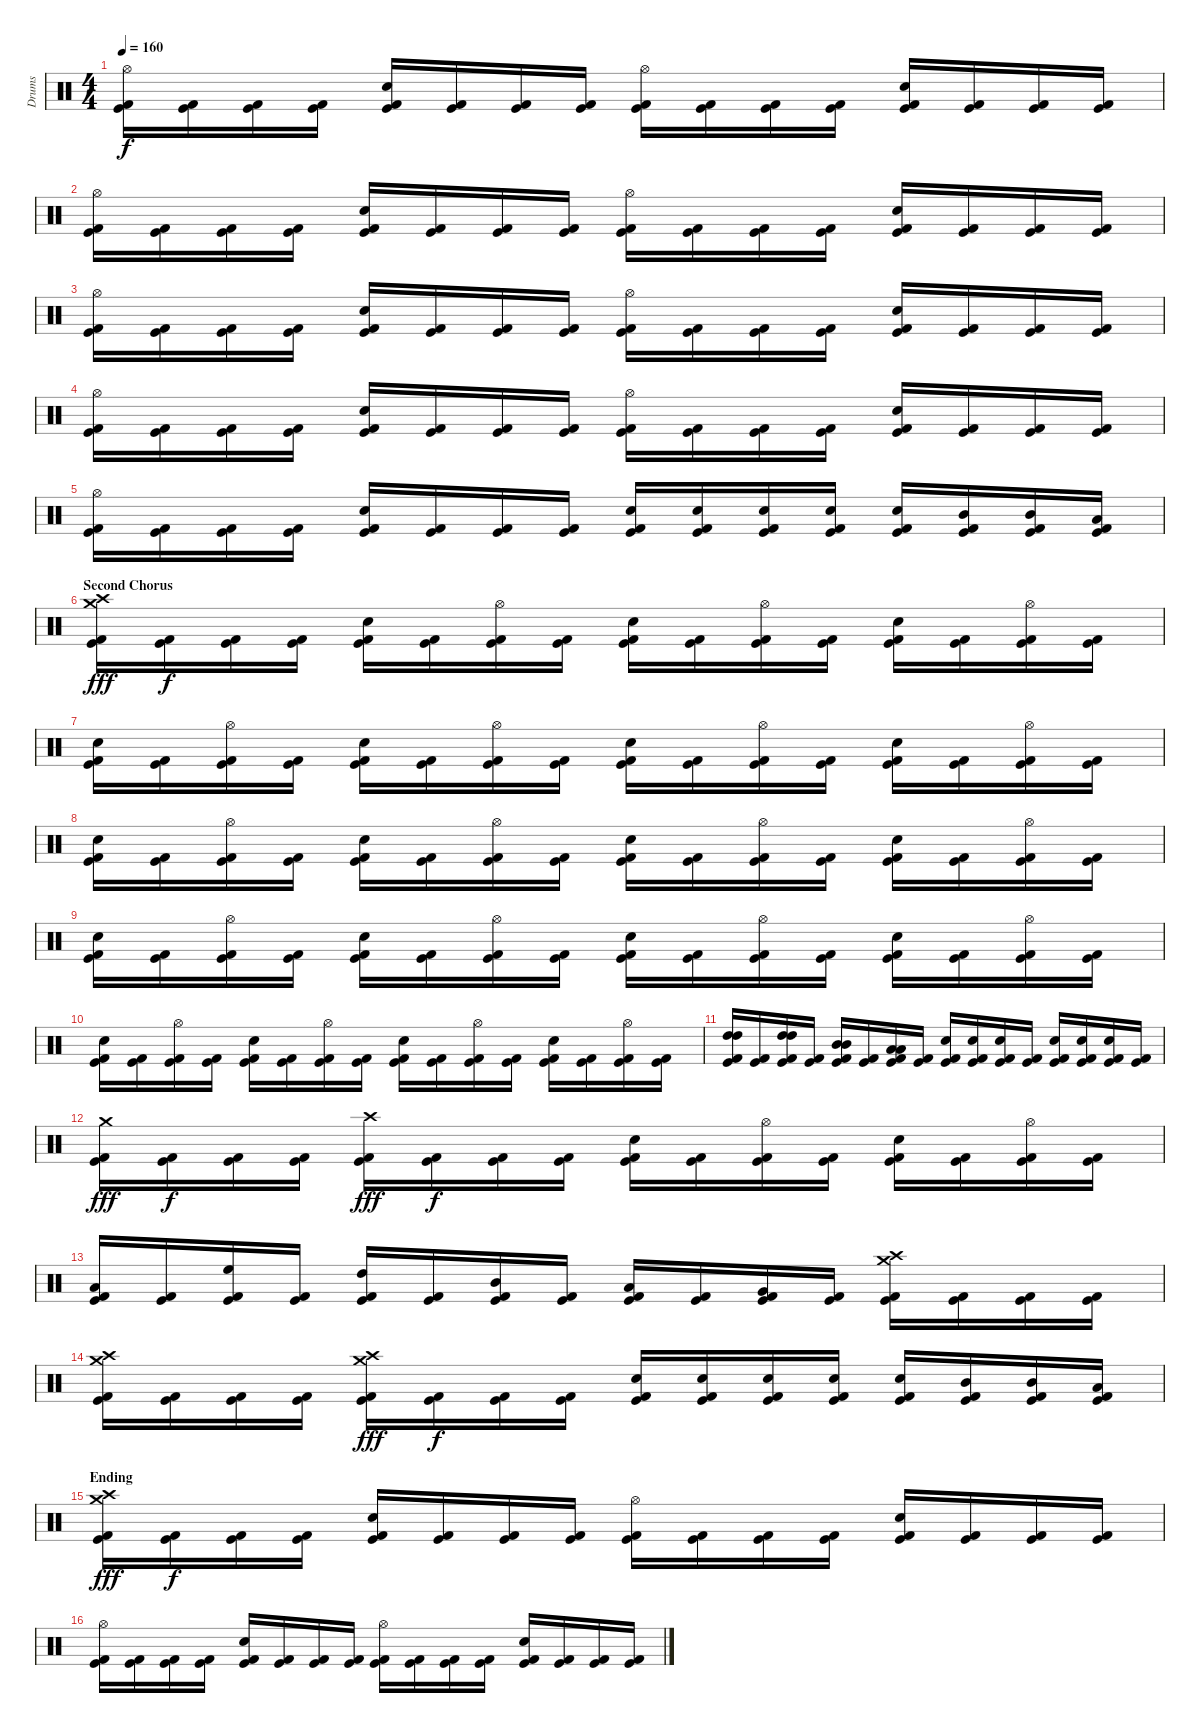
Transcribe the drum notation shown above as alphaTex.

\track ("Drums" "Drums") {instrument percussion}
\staff {score}
\articulation defaults
\ts (4 4)
\tempo 160
\clef neutral
\ks c
("Hi-Hat (open)" "Kick (hit)" "Kick (hit) 2").16{dy f} ("Kick (hit)" "Kick (hit) 2").16 ("Kick (hit)" "Kick (hit) 2").16 ("Kick (hit)" "Kick (hit) 2").16 ("Snare (hit) 2" "Kick (hit)" "Kick (hit) 2").16 ("Kick (hit)" "Kick (hit) 2").16 ("Kick (hit)" "Kick (hit) 2").16 ("Kick (hit)" "Kick (hit) 2").16 ("Hi-Hat (open)" "Kick (hit)" "Kick (hit) 2").16 ("Kick (hit)" "Kick (hit) 2").16 ("Kick (hit)" "Kick (hit) 2").16 ("Kick (hit)" "Kick (hit) 2").16 ("Snare (hit) 2" "Kick (hit)" "Kick (hit) 2").16 ("Kick (hit)" "Kick (hit) 2").16 ("Kick (hit)" "Kick (hit) 2").16 ("Kick (hit)" "Kick (hit) 2").16 |
("Hi-Hat (open)" "Kick (hit)" "Kick (hit) 2").16 ("Kick (hit)" "Kick (hit) 2").16 ("Kick (hit)" "Kick (hit) 2").16 ("Kick (hit)" "Kick (hit) 2").16 ("Snare (hit) 2" "Kick (hit)" "Kick (hit) 2").16 ("Kick (hit)" "Kick (hit) 2").16 ("Kick (hit)" "Kick (hit) 2").16 ("Kick (hit)" "Kick (hit) 2").16 ("Hi-Hat (open)" "Kick (hit)" "Kick (hit) 2").16 ("Kick (hit)" "Kick (hit) 2").16 ("Kick (hit)" "Kick (hit) 2").16 ("Kick (hit)" "Kick (hit) 2").16 ("Snare (hit) 2" "Kick (hit)" "Kick (hit) 2").16 ("Kick (hit)" "Kick (hit) 2").16 ("Kick (hit)" "Kick (hit) 2").16 ("Kick (hit)" "Kick (hit) 2").16 |
("Hi-Hat (open)" "Kick (hit)" "Kick (hit) 2").16 ("Kick (hit)" "Kick (hit) 2").16 ("Kick (hit)" "Kick (hit) 2").16 ("Kick (hit)" "Kick (hit) 2").16 ("Snare (hit) 2" "Kick (hit)" "Kick (hit) 2").16 ("Kick (hit)" "Kick (hit) 2").16 ("Kick (hit)" "Kick (hit) 2").16 ("Kick (hit)" "Kick (hit) 2").16 ("Hi-Hat (open)" "Kick (hit)" "Kick (hit) 2").16 ("Kick (hit)" "Kick (hit) 2").16 ("Kick (hit)" "Kick (hit) 2").16 ("Kick (hit)" "Kick (hit) 2").16 ("Snare (hit) 2" "Kick (hit)" "Kick (hit) 2").16 ("Kick (hit)" "Kick (hit) 2").16 ("Kick (hit)" "Kick (hit) 2").16 ("Kick (hit)" "Kick (hit) 2").16 |
("Hi-Hat (open)" "Kick (hit)" "Kick (hit) 2").16 ("Kick (hit)" "Kick (hit) 2").16 ("Kick (hit)" "Kick (hit) 2").16 ("Kick (hit)" "Kick (hit) 2").16 ("Snare (hit) 2" "Kick (hit)" "Kick (hit) 2").16 ("Kick (hit)" "Kick (hit) 2").16 ("Kick (hit)" "Kick (hit) 2").16 ("Kick (hit)" "Kick (hit) 2").16 ("Hi-Hat (open)" "Kick (hit)" "Kick (hit) 2").16 ("Kick (hit)" "Kick (hit) 2").16 ("Kick (hit)" "Kick (hit) 2").16 ("Kick (hit)" "Kick (hit) 2").16 ("Snare (hit) 2" "Kick (hit)" "Kick (hit) 2").16 ("Kick (hit)" "Kick (hit) 2").16 ("Kick (hit)" "Kick (hit) 2").16 ("Kick (hit)" "Kick (hit) 2").16 |
("Hi-Hat (open)" "Kick (hit)" "Kick (hit) 2").16 ("Kick (hit)" "Kick (hit) 2").16 ("Kick (hit)" "Kick (hit) 2").16 ("Kick (hit)" "Kick (hit) 2").16 ("Snare (hit) 2" "Kick (hit)" "Kick (hit) 2").16 ("Kick (hit)" "Kick (hit) 2").16 ("Kick (hit)" "Kick (hit) 2").16 ("Kick (hit)" "Kick (hit) 2").16 ("Snare (hit) 2" "Kick (hit)" "Kick (hit) 2").16 ("Snare (hit) 2" "Kick (hit)" "Kick (hit) 2").16 ("Snare (hit) 2" "Kick (hit)" "Kick (hit) 2").16 ("Snare (hit) 2" "Kick (hit)" "Kick (hit) 2").16 ("Snare (hit) 2" "Kick (hit)" "Kick (hit) 2").16 ("Mid Tom (hit)" "Kick (hit)" "Kick (hit) 2").16 ("Mid Tom (hit)" "Kick (hit)" "Kick (hit) 2").16 ("Low Tom (hit)" "Kick (hit)" "Kick (hit) 2").16 |
\section ("" "Second Chorus")
("Crash high (hit)" "Crash medium (hit)" "Kick (hit)" "Kick (hit) 2").16{dy fff} ("Kick (hit)" "Kick (hit) 2").16{dy f} ("Kick (hit)" "Kick (hit) 2").16 ("Kick (hit)" "Kick (hit) 2").16 ("Snare (hit) 2" "Kick (hit)" "Kick (hit) 2").16 ("Kick (hit)" "Kick (hit) 2").16 ("Hi-Hat (open)" "Kick (hit)" "Kick (hit) 2").16 ("Kick (hit)" "Kick (hit) 2").16 ("Snare (hit) 2" "Kick (hit)" "Kick (hit) 2").16 ("Kick (hit)" "Kick (hit) 2").16 ("Hi-Hat (open)" "Kick (hit)" "Kick (hit) 2").16 ("Kick (hit)" "Kick (hit) 2").16 ("Snare (hit) 2" "Kick (hit)" "Kick (hit) 2").16 ("Kick (hit)" "Kick (hit) 2").16 ("Hi-Hat (open)" "Kick (hit)" "Kick (hit) 2").16 ("Kick (hit)" "Kick (hit) 2").16 |
("Snare (hit) 2" "Kick (hit)" "Kick (hit) 2").16 ("Kick (hit)" "Kick (hit) 2").16 ("Hi-Hat (open)" "Kick (hit)" "Kick (hit) 2").16 ("Kick (hit)" "Kick (hit) 2").16 ("Snare (hit) 2" "Kick (hit)" "Kick (hit) 2").16 ("Kick (hit)" "Kick (hit) 2").16 ("Hi-Hat (open)" "Kick (hit)" "Kick (hit) 2").16 ("Kick (hit)" "Kick (hit) 2").16 ("Snare (hit) 2" "Kick (hit)" "Kick (hit) 2").16 ("Kick (hit)" "Kick (hit) 2").16 ("Hi-Hat (open)" "Kick (hit)" "Kick (hit) 2").16 ("Kick (hit)" "Kick (hit) 2").16 ("Snare (hit) 2" "Kick (hit)" "Kick (hit) 2").16 ("Kick (hit)" "Kick (hit) 2").16 ("Hi-Hat (open)" "Kick (hit)" "Kick (hit) 2").16 ("Kick (hit)" "Kick (hit) 2").16 |
("Snare (hit) 2" "Kick (hit)" "Kick (hit) 2").16 ("Kick (hit)" "Kick (hit) 2").16 ("Hi-Hat (open)" "Kick (hit)" "Kick (hit) 2").16 ("Kick (hit)" "Kick (hit) 2").16 ("Snare (hit) 2" "Kick (hit)" "Kick (hit) 2").16 ("Kick (hit)" "Kick (hit) 2").16 ("Hi-Hat (open)" "Kick (hit)" "Kick (hit) 2").16 ("Kick (hit)" "Kick (hit) 2").16 ("Snare (hit) 2" "Kick (hit)" "Kick (hit) 2").16 ("Kick (hit)" "Kick (hit) 2").16 ("Hi-Hat (open)" "Kick (hit)" "Kick (hit) 2").16 ("Kick (hit)" "Kick (hit) 2").16 ("Snare (hit) 2" "Kick (hit)" "Kick (hit) 2").16 ("Kick (hit)" "Kick (hit) 2").16 ("Hi-Hat (open)" "Kick (hit)" "Kick (hit) 2").16 ("Kick (hit)" "Kick (hit) 2").16 |
("Snare (hit) 2" "Kick (hit)" "Kick (hit) 2").16 ("Kick (hit)" "Kick (hit) 2").16 ("Hi-Hat (open)" "Kick (hit)" "Kick (hit) 2").16 ("Kick (hit)" "Kick (hit) 2").16 ("Snare (hit) 2" "Kick (hit)" "Kick (hit) 2").16 ("Kick (hit)" "Kick (hit) 2").16 ("Hi-Hat (open)" "Kick (hit)" "Kick (hit) 2").16 ("Kick (hit)" "Kick (hit) 2").16 ("Snare (hit) 2" "Kick (hit)" "Kick (hit) 2").16 ("Kick (hit)" "Kick (hit) 2").16 ("Hi-Hat (open)" "Kick (hit)" "Kick (hit) 2").16 ("Kick (hit)" "Kick (hit) 2").16 ("Snare (hit) 2" "Kick (hit)" "Kick (hit) 2").16 ("Kick (hit)" "Kick (hit) 2").16 ("Hi-Hat (open)" "Kick (hit)" "Kick (hit) 2").16 ("Kick (hit)" "Kick (hit) 2").16 |
("Snare (hit) 2" "Kick (hit)" "Kick (hit) 2").16 ("Kick (hit)" "Kick (hit) 2").16 ("Hi-Hat (open)" "Kick (hit)" "Kick (hit) 2").16 ("Kick (hit)" "Kick (hit) 2").16 ("Snare (hit) 2" "Kick (hit)" "Kick (hit) 2").16 ("Kick (hit)" "Kick (hit) 2").16 ("Hi-Hat (open)" "Kick (hit)" "Kick (hit) 2").16 ("Kick (hit)" "Kick (hit) 2").16 ("Snare (hit) 2" "Kick (hit)" "Kick (hit) 2").16 ("Kick (hit)" "Kick (hit) 2").16 ("Hi-Hat (open)" "Kick (hit)" "Kick (hit) 2").16 ("Kick (hit)" "Kick (hit) 2").16 ("Snare (hit) 2" "Kick (hit)" "Kick (hit) 2").16 ("Kick (hit)" "Kick (hit) 2").16 ("Hi-Hat (open)" "Kick (hit)" "Kick (hit) 2").16 ("Kick (hit)" "Kick (hit) 2").16 |
("High Tom (hit)" "High Tom (hit)" "Kick (hit)" "Kick (hit) 2").16 ("Kick (hit)" "Kick (hit) 2").16 ("High Tom (hit)" "High Tom (hit)" "Kick (hit)" "Kick (hit) 2").16 ("Kick (hit)" "Kick (hit) 2").16 ("Mid Tom (hit)" "Mid Tom (hit)" "Kick (hit)" "Kick (hit) 2").16 ("Kick (hit)" "Kick (hit) 2").16 ("Low Tom (hit)" "Low Tom (hit)" "Kick (hit)" "Kick (hit) 2").16 ("Kick (hit)" "Kick (hit) 2").16 ("Snare (hit) 2" "Kick (hit)" "Kick (hit) 2").16 ("Snare (hit) 2" "Kick (hit)" "Kick (hit) 2").16 ("Snare (hit) 2" "Kick (hit)" "Kick (hit) 2").16 ("Kick (hit)" "Kick (hit) 2").16 ("Snare (hit) 2" "Kick (hit)" "Kick (hit) 2").16 ("Snare (hit) 2" "Kick (hit)" "Kick (hit) 2").16 ("Snare (hit) 2" "Kick (hit)" "Kick (hit) 2").16 ("Kick (hit)" "Kick (hit) 2").16 |
("Crash medium (hit)" "Kick (hit)" "Kick (hit) 2").16{dy fff} ("Kick (hit)" "Kick (hit) 2").16{dy f} ("Kick (hit)" "Kick (hit) 2").16 ("Kick (hit)" "Kick (hit) 2").16 ("Crash high (hit)" "Kick (hit)" "Kick (hit) 2").16{dy fff} ("Kick (hit)" "Kick (hit) 2").16{dy f} ("Kick (hit)" "Kick (hit) 2").16 ("Kick (hit)" "Kick (hit) 2").16 ("Snare (hit) 2" "Kick (hit)" "Kick (hit) 2").16 ("Kick (hit)" "Kick (hit) 2").16 ("Hi-Hat (open)" "Kick (hit)" "Kick (hit) 2").16 ("Kick (hit)" "Kick (hit) 2").16 ("Snare (hit) 2" "Kick (hit)" "Kick (hit) 2").16 ("Kick (hit)" "Kick (hit) 2").16 ("Hi-Hat (open)" "Kick (hit)" "Kick (hit) 2").16 ("Kick (hit)" "Kick (hit) 2").16 |
("Low Tom (hit)" "Kick (hit)" "Kick (hit) 2").16 ("Kick (hit)" "Kick (hit) 2").16 ("High Floor Tom (hit)" "Kick (hit)" "Kick (hit) 2").16 ("Kick (hit)" "Kick (hit) 2").16 ("High Tom (hit)" "Kick (hit)" "Kick (hit) 2").16 ("Kick (hit)" "Kick (hit) 2").16 ("Mid Tom (hit)" "Kick (hit)" "Kick (hit) 2").16 ("Kick (hit)" "Kick (hit) 2").16 ("Low Tom (hit)" "Kick (hit)" "Kick (hit) 2").16 ("Kick (hit)" "Kick (hit) 2").16 ("Very Low Tom (hit)" "Kick (hit)" "Kick (hit) 2").16 ("Kick (hit)" "Kick (hit) 2").16 ("Crash medium (hit)" "Crash high (hit)" "Kick (hit)" "Kick (hit) 2").16 ("Kick (hit)" "Kick (hit) 2").16 ("Kick (hit)" "Kick (hit) 2").16 ("Kick (hit)" "Kick (hit) 2").16 |
("Crash high (hit)" "Crash medium (hit)" "Kick (hit)" "Kick (hit) 2").16 ("Kick (hit)" "Kick (hit) 2").16 ("Kick (hit)" "Kick (hit) 2").16 ("Kick (hit)" "Kick (hit) 2").16 ("Crash medium (hit)" "Crash high (hit)" "Kick (hit)" "Kick (hit) 2").16{dy fff} ("Kick (hit)" "Kick (hit) 2").16{dy f} ("Kick (hit)" "Kick (hit) 2").16 ("Kick (hit)" "Kick (hit) 2").16 ("Snare (hit) 2" "Kick (hit)" "Kick (hit) 2").16 ("Snare (hit) 2" "Kick (hit)" "Kick (hit) 2").16 ("Snare (hit) 2" "Kick (hit)" "Kick (hit) 2").16 ("Snare (hit) 2" "Kick (hit)" "Kick (hit) 2").16 ("Snare (hit) 2" "Kick (hit)" "Kick (hit) 2").16 ("Mid Tom (hit)" "Kick (hit)" "Kick (hit) 2").16 ("Mid Tom (hit)" "Kick (hit)" "Kick (hit) 2").16 ("Low Tom (hit)" "Kick (hit)" "Kick (hit) 2").16 |
\section ("" "Ending")
("Crash high (hit)" "Crash medium (hit)" "Kick (hit)" "Kick (hit) 2").16{dy fff} ("Kick (hit)" "Kick (hit) 2").16{dy f} ("Kick (hit)" "Kick (hit) 2").16 ("Kick (hit)" "Kick (hit) 2").16 ("Snare (hit) 2" "Kick (hit)" "Kick (hit) 2").16 ("Kick (hit)" "Kick (hit) 2").16 ("Kick (hit)" "Kick (hit) 2").16 ("Kick (hit)" "Kick (hit) 2").16 ("Hi-Hat (open)" "Kick (hit)" "Kick (hit) 2").16 ("Kick (hit)" "Kick (hit) 2").16 ("Kick (hit)" "Kick (hit) 2").16 ("Kick (hit)" "Kick (hit) 2").16 ("Snare (hit) 2" "Kick (hit)" "Kick (hit) 2").16 ("Kick (hit)" "Kick (hit) 2").16 ("Kick (hit)" "Kick (hit) 2").16 ("Kick (hit)" "Kick (hit) 2").16 |
("Hi-Hat (open)" "Kick (hit)" "Kick (hit) 2").16 ("Kick (hit)" "Kick (hit) 2").16 ("Kick (hit)" "Kick (hit) 2").16 ("Kick (hit)" "Kick (hit) 2").16 ("Snare (hit) 2" "Kick (hit)" "Kick (hit) 2").16 ("Kick (hit)" "Kick (hit) 2").16 ("Kick (hit)" "Kick (hit) 2").16 ("Kick (hit)" "Kick (hit) 2").16 ("Hi-Hat (open)" "Kick (hit)" "Kick (hit) 2").16 ("Kick (hit)" "Kick (hit) 2").16 ("Kick (hit)" "Kick (hit) 2").16 ("Kick (hit)" "Kick (hit) 2").16 ("Snare (hit) 2" "Kick (hit)" "Kick (hit) 2").16 ("Kick (hit)" "Kick (hit) 2").16 ("Kick (hit)" "Kick (hit) 2").16 ("Kick (hit)" "Kick (hit) 2").16
